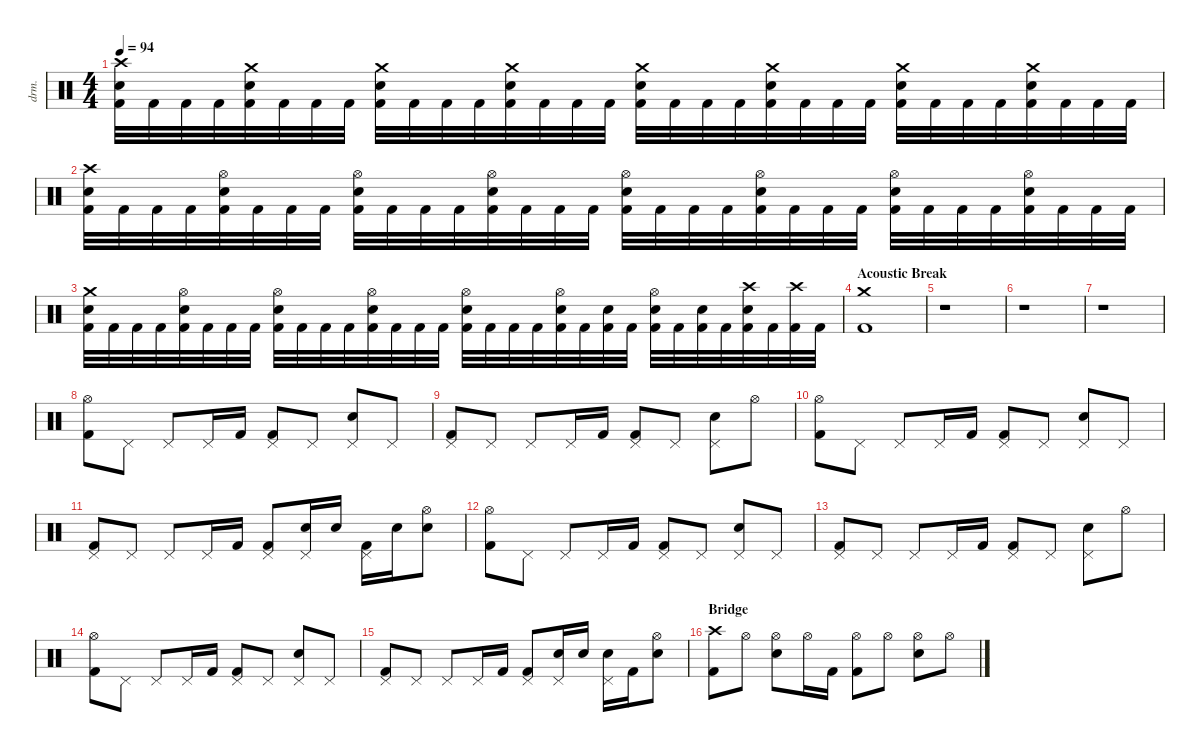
\defaultSystemsLayout 4
\hideDynamics
\bracketExtendMode nobrackets
\track ("Drums" "drm.") {instrument percussion}
\staff {score}
\articulation defaults
\ts (4 4)
\tempo 94
\clef neutral
\ks c
("Crash high (hit)" "Snare (hit) 2" "Kick (hit) 2").32{dy f} "Kick (hit) 2".32 "Kick (hit) 2".32 "Kick (hit) 2".32 ("Crash medium (hit)" "Snare (hit) 2" "Kick (hit) 2").32 "Kick (hit) 2".32 "Kick (hit) 2".32 "Kick (hit) 2".32 ("Crash medium (hit)" "Snare (hit) 2" "Kick (hit) 2").32 "Kick (hit) 2".32 "Kick (hit) 2".32 "Kick (hit) 2".32 ("Crash medium (hit)" "Snare (hit) 2" "Kick (hit) 2").32 "Kick (hit) 2".32 "Kick (hit) 2".32 "Kick (hit) 2".32 ("Crash medium (hit)" "Snare (hit) 2" "Kick (hit) 2").32 "Kick (hit) 2".32 "Kick (hit) 2".32 "Kick (hit) 2".32 ("Crash medium (hit)" "Snare (hit) 2" "Kick (hit) 2").32 "Kick (hit) 2".32 "Kick (hit) 2".32 "Kick (hit) 2".32 ("Crash medium (hit)" "Snare (hit) 2" "Kick (hit) 2").32 "Kick (hit) 2".32 "Kick (hit) 2".32 "Kick (hit) 2".32 ("Crash medium (hit)" "Snare (hit) 2" "Kick (hit) 2").32 "Kick (hit) 2".32 "Kick (hit) 2".32 "Kick (hit) 2".32 |
("Crash high (hit)" "Snare (hit) 2" "Kick (hit) 2").32 "Kick (hit) 2".32 "Kick (hit) 2".32 "Kick (hit) 2".32 ("Hi-Hat (open)" "Snare (hit) 2" "Kick (hit) 2").32 "Kick (hit) 2".32 "Kick (hit) 2".32 "Kick (hit) 2".32 ("Hi-Hat (open)" "Snare (hit) 2" "Kick (hit) 2").32 "Kick (hit) 2".32 "Kick (hit) 2".32 "Kick (hit) 2".32 ("Hi-Hat (open)" "Snare (hit) 2" "Kick (hit) 2").32 "Kick (hit) 2".32 "Kick (hit) 2".32 "Kick (hit) 2".32 ("Hi-Hat (open)" "Snare (hit) 2" "Kick (hit) 2").32 "Kick (hit) 2".32 "Kick (hit) 2".32 "Kick (hit) 2".32 ("Hi-Hat (open)" "Snare (hit) 2" "Kick (hit) 2").32 "Kick (hit) 2".32 "Kick (hit) 2".32 "Kick (hit) 2".32 ("Hi-Hat (open)" "Snare (hit) 2" "Kick (hit) 2").32 "Kick (hit) 2".32 "Kick (hit) 2".32 "Kick (hit) 2".32 ("Hi-Hat (open)" "Snare (hit) 2" "Kick (hit) 2").32 "Kick (hit) 2".32 "Kick (hit) 2".32 "Kick (hit) 2".32 |
("Crash medium (hit)" "Snare (hit) 2" "Kick (hit) 2").32 "Kick (hit) 2".32 "Kick (hit) 2".32 "Kick (hit) 2".32 ("Hi-Hat (open)" "Snare (hit) 2" "Kick (hit) 2").32 "Kick (hit) 2".32 "Kick (hit) 2".32 "Kick (hit) 2".32 ("Hi-Hat (open)" "Snare (hit) 2" "Kick (hit) 2").32 "Kick (hit) 2".32 "Kick (hit) 2".32 "Kick (hit) 2".32 ("Hi-Hat (open)" "Snare (hit) 2" "Kick (hit) 2").32 "Kick (hit) 2".32 "Kick (hit) 2".32 "Kick (hit) 2".32 ("Hi-Hat (open)" "Snare (hit) 2" "Kick (hit) 2").32 "Kick (hit) 2".32 "Kick (hit) 2".32 "Kick (hit) 2".32 ("Hi-Hat (open)" "Snare (hit) 2" "Kick (hit) 2").32 "Kick (hit) 2".32 ("Snare (hit) 2" "Kick (hit) 2").32 "Kick (hit) 2".32 ("Hi-Hat (open)" "Snare (hit) 2" "Kick (hit) 2").32 "Kick (hit) 2".32 ("Snare (hit) 2" "Kick (hit) 2").32 "Kick (hit) 2".32 ("Crash high (hit)" "Snare (hit) 2" "Kick (hit) 2").32 "Kick (hit) 2".32 ("Crash high (hit)" "Kick (hit) 2").32 "Kick (hit) 2".32 |
\section ("" "Acoustic Break")
("Crash medium (hit)" "Kick (hit) 2").1 |
r.1 |
r.1 |
r.1 |
("Hi-Hat (open)" "Kick (hit) 2").8 "Pedal Hi-Hat (hit)".8 "Pedal Hi-Hat (hit)".8 "Pedal Hi-Hat (hit)".16 "Kick (hit) 2".16 ("Pedal Hi-Hat (hit)" "Kick (hit) 2").8 "Pedal Hi-Hat (hit)".8 ("Pedal Hi-Hat (hit)" "Snare (hit) 2").8 "Pedal Hi-Hat (hit)".8 |
("Pedal Hi-Hat (hit)" "Kick (hit) 2").8 "Pedal Hi-Hat (hit)".8 "Pedal Hi-Hat (hit)".8 "Pedal Hi-Hat (hit)".16 "Kick (hit) 2".16 ("Pedal Hi-Hat (hit)" "Kick (hit) 2").8 "Pedal Hi-Hat (hit)".8 ("Pedal Hi-Hat (hit)" "Snare (hit) 2").8 "Hi-Hat (open)".8 |
("Hi-Hat (open)" "Kick (hit) 2").8 "Pedal Hi-Hat (hit)".8 "Pedal Hi-Hat (hit)".8 "Pedal Hi-Hat (hit)".16 "Kick (hit) 2".16 ("Pedal Hi-Hat (hit)" "Kick (hit) 2").8 "Pedal Hi-Hat (hit)".8 ("Pedal Hi-Hat (hit)" "Snare (hit) 2").8 "Pedal Hi-Hat (hit)".8 |
("Pedal Hi-Hat (hit)" "Kick (hit) 2").8 "Pedal Hi-Hat (hit)".8 "Pedal Hi-Hat (hit)".8 "Pedal Hi-Hat (hit)".16 "Kick (hit) 2".16 ("Pedal Hi-Hat (hit)" "Kick (hit) 2").8 ("Pedal Hi-Hat (hit)" "Snare (hit) 2").16 "Snare (hit) 2".16 ("Pedal Hi-Hat (hit)" "Kick (hit) 2").16 "Snare (hit) 2".16 ("Hi-Hat (open)" "Snare (hit) 2").8 |
("Hi-Hat (open)" "Kick (hit) 2").8 "Pedal Hi-Hat (hit)".8 "Pedal Hi-Hat (hit)".8 "Pedal Hi-Hat (hit)".16 "Kick (hit) 2".16 ("Pedal Hi-Hat (hit)" "Kick (hit) 2").8 "Pedal Hi-Hat (hit)".8 ("Pedal Hi-Hat (hit)" "Snare (hit) 2").8 "Pedal Hi-Hat (hit)".8 |
("Pedal Hi-Hat (hit)" "Kick (hit) 2").8 "Pedal Hi-Hat (hit)".8 "Pedal Hi-Hat (hit)".8 "Pedal Hi-Hat (hit)".16 "Kick (hit) 2".16 ("Pedal Hi-Hat (hit)" "Kick (hit) 2").8 "Pedal Hi-Hat (hit)".8 ("Pedal Hi-Hat (hit)" "Snare (hit) 2").8 "Hi-Hat (open)".8 |
("Hi-Hat (open)" "Kick (hit) 2").8 "Pedal Hi-Hat (hit)".8 "Pedal Hi-Hat (hit)".8 "Pedal Hi-Hat (hit)".16 "Kick (hit) 2".16 ("Pedal Hi-Hat (hit)" "Kick (hit) 2").8 "Pedal Hi-Hat (hit)".8 ("Pedal Hi-Hat (hit)" "Snare (hit) 2").8 "Pedal Hi-Hat (hit)".8 |
("Pedal Hi-Hat (hit)" "Kick (hit) 2").8 "Pedal Hi-Hat (hit)".8 "Pedal Hi-Hat (hit)".8 "Pedal Hi-Hat (hit)".16 "Kick (hit) 2".16 ("Pedal Hi-Hat (hit)" "Kick (hit) 2").8 ("Pedal Hi-Hat (hit)" "Snare (hit) 2").16 "Snare (hit) 2".16 ("Pedal Hi-Hat (hit)" "Snare (hit) 2").16 "Kick (hit) 2".16 ("Hi-Hat (open)" "Snare (hit) 2").8 |
\section ("" "Bridge")
("Crash high (hit)" "Kick (hit) 2").8 "Hi-Hat (open)".8 ("Hi-Hat (open)" "Snare (hit) 2").8 "Hi-Hat (open)".16 "Kick (hit) 2".16 ("Hi-Hat (open)" "Kick (hit) 2").8 "Hi-Hat (open)".8 ("Hi-Hat (open)" "Snare (hit) 2").8 "Hi-Hat (open)".8
